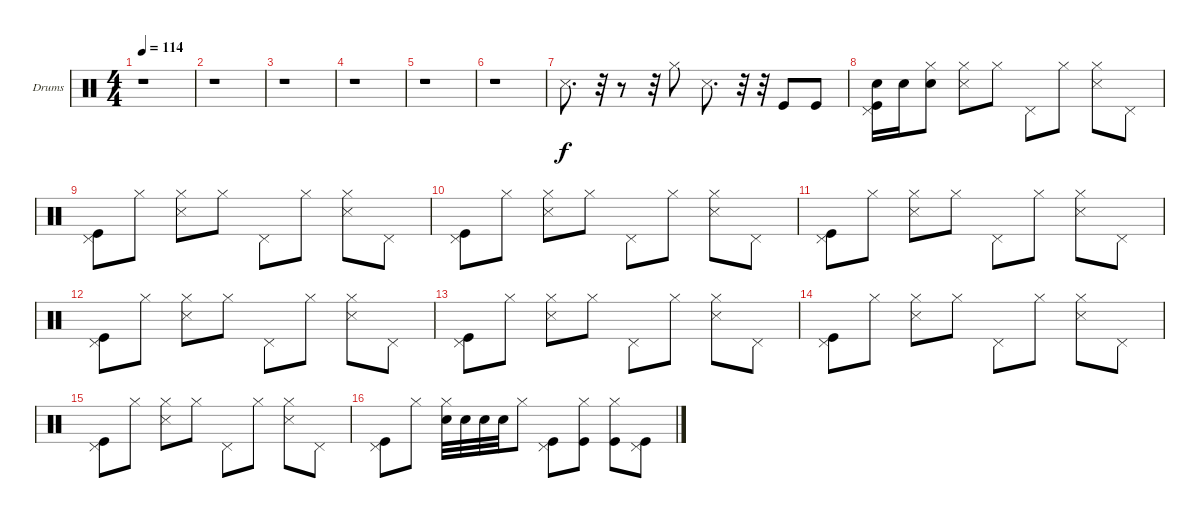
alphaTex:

\bracketExtendMode groupsimilarinstruments
\firstSystemTrackNameOrientation horizontal
\otherSystemsTrackNameOrientation horizontal
\track ("Drumkit" "Drums") {instrument percussion}
\staff {score}
\articulation defaults
\ts (4 4)
\tempo 114
\clef neutral
\ks c
r.1{dy f} |
r.1 |
r.1 |
r.1 |
r.1 |
r.1 |
"Snare (side stick) 3".8{d} r.32 r.8 r.32 "Hi-Hat (closed)".8 "Snare (side stick) 3".8{d} r.32 r.32 "Kick (hit)".8 "Kick (hit)".8 |
("Kick (hit)" "Snare (hit) 2" "Pedal Hi-Hat (hit)").16 "Snare (hit) 2".16 ("Snare (hit) 2" "Hi-Hat (closed)").8 ("Snare (side stick) 3" "Hi-Hat (closed)").8 "Hi-Hat (closed)".8 "Pedal Hi-Hat (hit)".8 "Hi-Hat (closed)".8 ("Snare (side stick) 3" "Hi-Hat (closed)").8 "Pedal Hi-Hat (hit)".8 |
("Kick (hit)" "Pedal Hi-Hat (hit)").8 "Hi-Hat (closed)".8 ("Snare (side stick) 3" "Hi-Hat (closed)").8 "Hi-Hat (closed)".8 "Pedal Hi-Hat (hit)".8 "Hi-Hat (closed)".8 ("Snare (side stick) 3" "Hi-Hat (closed)").8 "Pedal Hi-Hat (hit)".8 |
("Kick (hit)" "Pedal Hi-Hat (hit)").8 "Hi-Hat (closed)".8 ("Snare (side stick) 3" "Hi-Hat (closed)").8 "Hi-Hat (closed)".8 "Pedal Hi-Hat (hit)".8 "Hi-Hat (closed)".8 ("Snare (side stick) 3" "Hi-Hat (closed)").8 "Pedal Hi-Hat (hit)".8 |
("Kick (hit)" "Pedal Hi-Hat (hit)").8 "Hi-Hat (closed)".8 ("Snare (side stick) 3" "Hi-Hat (closed)").8 "Hi-Hat (closed)".8 "Pedal Hi-Hat (hit)".8 "Hi-Hat (closed)".8 ("Snare (side stick) 3" "Hi-Hat (closed)").8 "Pedal Hi-Hat (hit)".8 |
("Kick (hit)" "Pedal Hi-Hat (hit)").8 "Hi-Hat (closed)".8 ("Snare (side stick) 3" "Hi-Hat (closed)").8 "Hi-Hat (closed)".8 "Pedal Hi-Hat (hit)".8 "Hi-Hat (closed)".8 ("Snare (side stick) 3" "Hi-Hat (closed)").8 "Pedal Hi-Hat (hit)".8 |
("Kick (hit)" "Pedal Hi-Hat (hit)").8 "Hi-Hat (closed)".8 ("Snare (side stick) 3" "Hi-Hat (closed)").8 "Hi-Hat (closed)".8 "Pedal Hi-Hat (hit)".8 "Hi-Hat (closed)".8 ("Snare (side stick) 3" "Hi-Hat (closed)").8 "Pedal Hi-Hat (hit)".8 |
("Kick (hit)" "Pedal Hi-Hat (hit)").8 "Hi-Hat (closed)".8 ("Snare (side stick) 3" "Hi-Hat (closed)").8 "Hi-Hat (closed)".8 "Pedal Hi-Hat (hit)".8 "Hi-Hat (closed)".8 ("Snare (side stick) 3" "Hi-Hat (closed)").8 "Pedal Hi-Hat (hit)".8 |
("Kick (hit)" "Pedal Hi-Hat (hit)").8 "Hi-Hat (closed)".8 ("Snare (side stick) 3" "Hi-Hat (closed)").8 "Hi-Hat (closed)".8 "Pedal Hi-Hat (hit)".8 "Hi-Hat (closed)".8 ("Snare (side stick) 3" "Hi-Hat (closed)").8 "Pedal Hi-Hat (hit)".8 |
("Kick (hit)" "Pedal Hi-Hat (hit)").8 "Hi-Hat (closed)".8 ("Snare (hit) 2" "Hi-Hat (closed)").32 "Snare (hit) 2".32 "Snare (hit) 2".32 "Snare (hit) 2".32 "Hi-Hat (closed)".8 ("Kick (hit)" "Pedal Hi-Hat (hit)").8 ("Kick (hit)" "Hi-Hat (closed)").8 ("Kick (hit)" "Hi-Hat (closed)").8 ("Kick (hit)" "Pedal Hi-Hat (hit)").8
